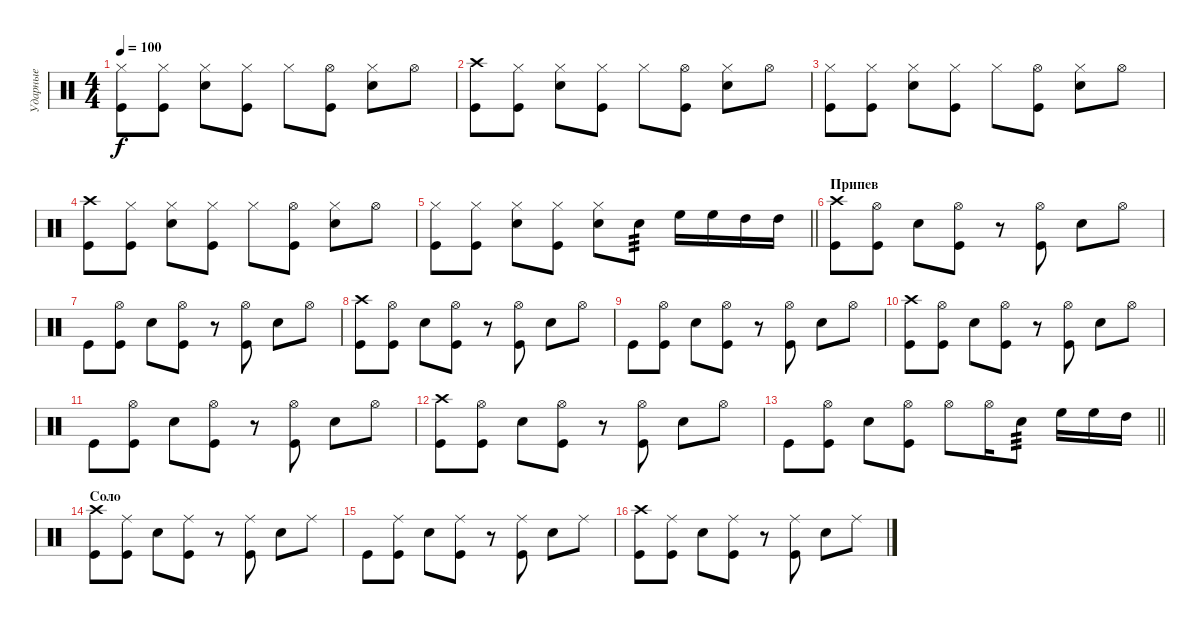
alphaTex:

\track ("Ударные" "Ударные") {instrument percussion}
\staff {score}
\articulation defaults
\ts (4 4)
\tempo 100
\clef neutral
\ks c
("Kick (hit)" "Hi-Hat (closed)").8{dy f} ("Kick (hit)" "Hi-Hat (closed)").8 ("Snare (hit) 2" "Hi-Hat (closed)").8 ("Hi-Hat (closed)" "Kick (hit)").8 "Hi-Hat (closed)".8 ("Kick (hit)" "Hi-Hat (open)").8 ("Hi-Hat (closed)" "Snare (hit) 2").8 "Hi-Hat (open)".8 |
("Kick (hit)" "Crash high (hit)").8 ("Kick (hit)" "Hi-Hat (closed)").8 ("Snare (hit) 2" "Hi-Hat (closed)").8 ("Hi-Hat (closed)" "Kick (hit)").8 "Hi-Hat (closed)".8 ("Hi-Hat (open)" "Kick (hit)").8 ("Hi-Hat (closed)" "Snare (hit) 2").8 "Hi-Hat (open)".8 |
("Kick (hit)" "Hi-Hat (closed)").8 ("Kick (hit)" "Hi-Hat (closed)").8 ("Snare (hit) 2" "Hi-Hat (closed)").8 ("Hi-Hat (closed)" "Kick (hit)").8 "Hi-Hat (closed)".8 ("Kick (hit)" "Hi-Hat (open)").8 ("Hi-Hat (closed)" "Snare (hit) 2").8 "Hi-Hat (open)".8 |
("Kick (hit)" "Crash high (hit)").8 ("Kick (hit)" "Hi-Hat (closed)").8 ("Snare (hit) 2" "Hi-Hat (closed)").8 ("Hi-Hat (closed)" "Kick (hit)").8 "Hi-Hat (closed)".8 ("Hi-Hat (open)" "Kick (hit)").8 ("Hi-Hat (closed)" "Snare (hit) 2").8 "Hi-Hat (open)".8 |
\barLineRight lightlight
("Kick (hit)" "Hi-Hat (closed)").8 ("Kick (hit)" "Hi-Hat (closed)").8 ("Snare (hit) 2" "Hi-Hat (closed)").8 ("Hi-Hat (closed)" "Kick (hit)").8 ("Snare (hit) 2" "Hi-Hat (closed)").8 "Snare (hit) 2".8{tp 3} "High Floor Tom (hit)".16 "High Floor Tom (hit)".16 "High Tom (hit)".16 "High Tom (hit)".16 |
\section ("" "Припев")
("Crash high (hit)" "Kick (hit)").8 ("Hi-Hat (open)" "Kick (hit)").8 "Snare (hit) 2".8 ("Hi-Hat (open)" "Kick (hit)").8 r.8 ("Hi-Hat (open)" "Kick (hit)").8 "Snare (hit) 2".8 "Hi-Hat (open)".8 |
"Kick (hit)".8 ("Hi-Hat (open)" "Kick (hit)").8 "Snare (hit) 2".8 ("Hi-Hat (open)" "Kick (hit)").8 r.8 ("Hi-Hat (open)" "Kick (hit)").8 "Snare (hit) 2".8 "Hi-Hat (open)".8 |
("Crash high (hit)" "Kick (hit)").8 ("Hi-Hat (open)" "Kick (hit)").8 "Snare (hit) 2".8 ("Hi-Hat (open)" "Kick (hit)").8 r.8 ("Hi-Hat (open)" "Kick (hit)").8 "Snare (hit) 2".8 "Hi-Hat (open)".8 |
"Kick (hit)".8 ("Hi-Hat (open)" "Kick (hit)").8 "Snare (hit) 2".8 ("Hi-Hat (open)" "Kick (hit)").8 r.8 ("Hi-Hat (open)" "Kick (hit)").8 "Snare (hit) 2".8 "Hi-Hat (open)".8 |
("Crash high (hit)" "Kick (hit)").8 ("Hi-Hat (open)" "Kick (hit)").8 "Snare (hit) 2".8 ("Hi-Hat (open)" "Kick (hit)").8 r.8 ("Hi-Hat (open)" "Kick (hit)").8 "Snare (hit) 2".8 "Hi-Hat (open)".8 |
"Kick (hit)".8 ("Hi-Hat (open)" "Kick (hit)").8 "Snare (hit) 2".8 ("Hi-Hat (open)" "Kick (hit)").8 r.8 ("Hi-Hat (open)" "Kick (hit)").8 "Snare (hit) 2".8 "Hi-Hat (open)".8 |
("Crash high (hit)" "Kick (hit)").8 ("Hi-Hat (open)" "Kick (hit)").8 "Snare (hit) 2".8 ("Hi-Hat (open)" "Kick (hit)").8 r.8 ("Hi-Hat (open)" "Kick (hit)").8 "Snare (hit) 2".8 "Hi-Hat (open)".8 |
\barLineRight lightlight "Kick (hit)".8
("Hi-Hat (open)" "Kick (hit)").8 "Snare (hit) 2".8 ("Hi-Hat (open)" "Kick (hit)").8 "Hi-Hat (open)".8 "Hi-Hat (open)".16 "Snare (hit) 2".8{tp 3} "High Floor Tom (hit)".16 "High Floor Tom (hit)".16 "High Tom (hit)".16 |
\section ("" "Соло")
("Kick (hit)" "Crash high (hit)").8 ("Kick (hit)" "Ride (middle)").8 "Snare (hit) 2".8 ("Ride (middle)" "Kick (hit)").8 r.8 ("Ride (middle)" "Kick (hit)").8 "Snare (hit) 2".8 "Ride (middle)".8 |
"Kick (hit)".8 ("Kick (hit)" "Ride (middle)").8 "Snare (hit) 2".8 ("Ride (middle)" "Kick (hit)").8 r.8 ("Ride (middle)" "Kick (hit)").8 "Snare (hit) 2".8 "Ride (middle)".8 |
("Kick (hit)" "Crash high (hit)").8 ("Kick (hit)" "Ride (middle)").8 "Snare (hit) 2".8 ("Ride (middle)" "Kick (hit)").8 r.8 ("Ride (middle)" "Kick (hit)").8 "Snare (hit) 2".8 "Ride (middle)".8
